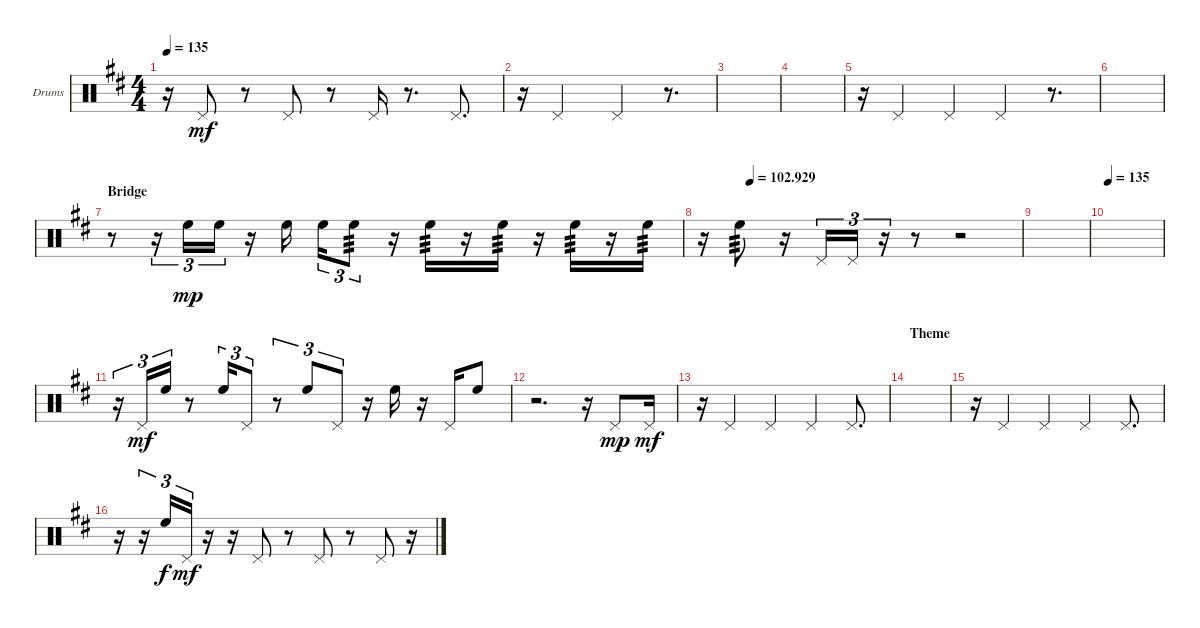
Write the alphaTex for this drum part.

\bracketExtendMode groupsimilarinstruments
\firstSystemTrackNameOrientation horizontal
\otherSystemsTrackNameOrientation horizontal
\track ("HH" "Drums") {instrument percussion}
\staff {score}
\articulation defaults
\ts (4 4)
\tempo 135
\clef neutral
\ks d
r.16{dy mf} "Pedal Hi-Hat (hit)".8 r.8 "Pedal Hi-Hat (hit)".8 r.8 "Pedal Hi-Hat (hit)".16 r.8{d} "Pedal Hi-Hat (hit)".8{d} |
r.16 "Pedal Hi-Hat (hit)".2 "Pedal Hi-Hat (hit)".4 r.8{d} |
|
|
r.16 "Pedal Hi-Hat (hit)".4 "Pedal Hi-Hat (hit)".4 "Pedal Hi-Hat (hit)".4 r.8{d} |
|
\section ("" "Bridge")
r.8 r.16{tu (3 2)} "High Floor Tom (hit)".16{tu (3 2) dy mp} "High Floor Tom (hit)".16{tu (3 2)} r.16 "High Floor Tom (hit)".16 "High Floor Tom (hit)".16{tu (3 2)} "High Floor Tom (hit)".8{tu (3 2) tp 3} r.16 "High Floor Tom (hit)".16{tp 3} r.16 "High Floor Tom (hit)".16{tp 3} r.16 "High Floor Tom (hit)".16{tp 3} r.16 "High Floor Tom (hit)".16{tp 3} |
\tempo (102.929 0.15)
r.16 "High Floor Tom (hit)".8{tp 3} r.16 "Pedal Hi-Hat (hit)".16{tu (3 2)} "Pedal Hi-Hat (hit)".16{tu (3 2)} r.16{tu (3 2)} r.8 r.2 |
|
\tempo 135
|
r.16{tu (3 2)} "Pedal Hi-Hat (hit)".16{tu (3 2) dy mf} "High Floor Tom (hit)".16{tu (3 2)} r.8 "High Floor Tom (hit)".16{tu (3 2)} "Pedal Hi-Hat (hit)".8{tu (3 2)} r.8{tu (3 2)} "High Floor Tom (hit)".8{tu (3 2)} "Pedal Hi-Hat (hit)".8{tu (3 2)} r.16 "High Floor Tom (hit)".16 r.16 "Pedal Hi-Hat (hit)".16 "High Floor Tom (hit)".8 |
r.2{d} r.16 "Pedal Hi-Hat (hit)".8{dy mp} "Pedal Hi-Hat (hit)".16{dy mf} |
r.16 "Pedal Hi-Hat (hit)".4 "Pedal Hi-Hat (hit)".4 "Pedal Hi-Hat (hit)".4 "Pedal Hi-Hat (hit)".8{d} |
\section ("" "Theme")
|
r.16 "Pedal Hi-Hat (hit)".4 "Pedal Hi-Hat (hit)".4 "Pedal Hi-Hat (hit)".4 "Pedal Hi-Hat (hit)".8{d} |
r.16 r.16{tu (3 2)} "High Floor Tom (hit)".16{tu (3 2) dy f} "Pedal Hi-Hat (hit)".16{tu (3 2) dy mf} r.16 r.16 "Pedal Hi-Hat (hit)".8 r.8 "Pedal Hi-Hat (hit)".8 r.8 "Pedal Hi-Hat (hit)".8 r.16
